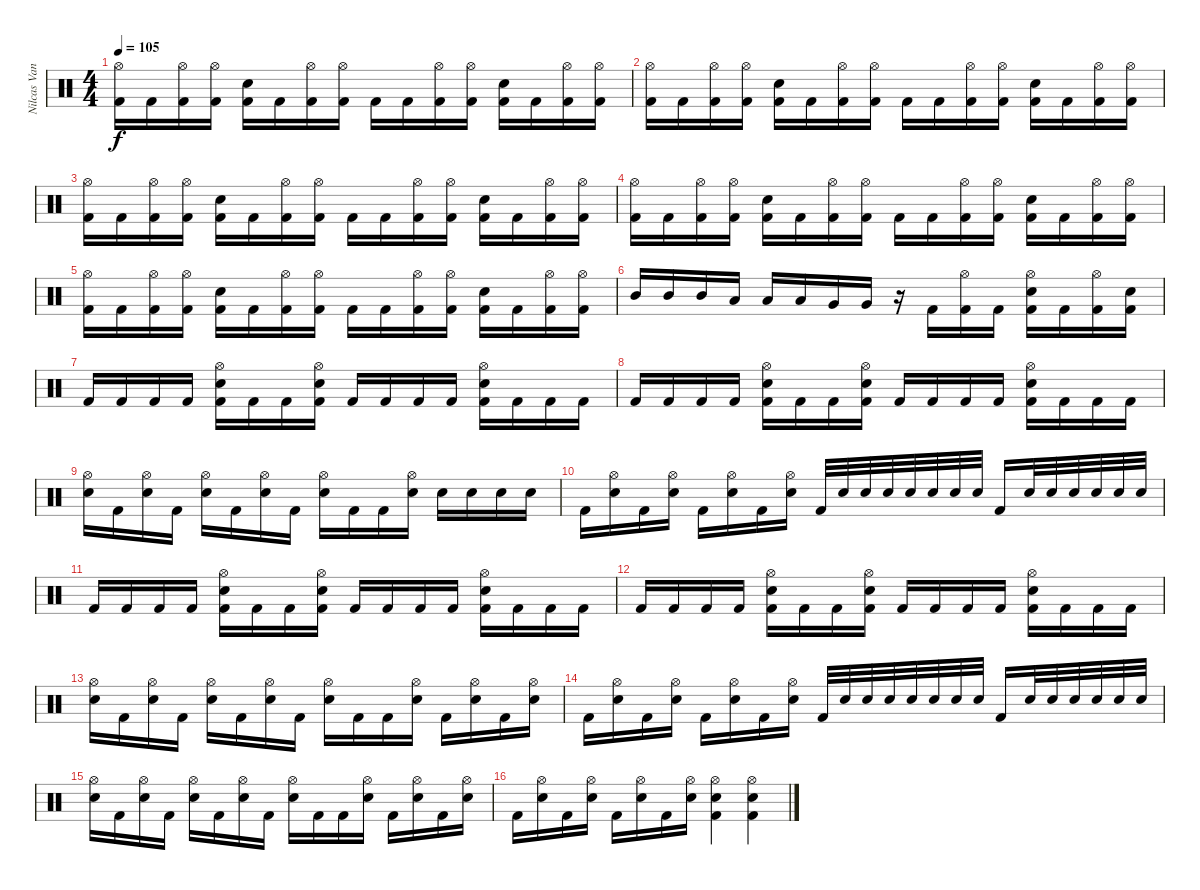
\track ("Nilcas Vant" "Nilcas Van") {instrument percussion}
\staff {score}
\articulation defaults
\ts (4 4)
\tempo 105
\clef neutral
\ks c
("Hi-Hat (open)" "Kick (hit) 2").16{dy f} "Kick (hit) 2".16 ("Hi-Hat (open)" "Kick (hit) 2").16 ("Hi-Hat (open)" "Kick (hit) 2").16 ("Electric Snare (hit)" "Kick (hit) 2").16 "Kick (hit) 2".16 ("Hi-Hat (open)" "Kick (hit) 2").16 ("Hi-Hat (open)" "Kick (hit) 2").16 "Kick (hit) 2".16 "Kick (hit) 2".16 ("Hi-Hat (open)" "Kick (hit) 2").16 ("Hi-Hat (open)" "Kick (hit) 2").16 ("Electric Snare (hit)" "Kick (hit) 2").16 "Kick (hit) 2".16 ("Hi-Hat (open)" "Kick (hit) 2").16 ("Hi-Hat (open)" "Kick (hit) 2").16 |
("Hi-Hat (open)" "Kick (hit) 2").16 "Kick (hit) 2".16 ("Hi-Hat (open)" "Kick (hit) 2").16 ("Hi-Hat (open)" "Kick (hit) 2").16 ("Electric Snare (hit)" "Kick (hit) 2").16 "Kick (hit) 2".16 ("Hi-Hat (open)" "Kick (hit) 2").16 ("Hi-Hat (open)" "Kick (hit) 2").16 "Kick (hit) 2".16 "Kick (hit) 2".16 ("Hi-Hat (open)" "Kick (hit) 2").16 ("Hi-Hat (open)" "Kick (hit) 2").16 ("Electric Snare (hit)" "Kick (hit) 2").16 "Kick (hit) 2".16 ("Hi-Hat (open)" "Kick (hit) 2").16 ("Hi-Hat (open)" "Kick (hit) 2").16 |
("Hi-Hat (open)" "Kick (hit) 2").16 "Kick (hit) 2".16 ("Hi-Hat (open)" "Kick (hit) 2").16 ("Hi-Hat (open)" "Kick (hit) 2").16 ("Electric Snare (hit)" "Kick (hit) 2").16 "Kick (hit) 2".16 ("Hi-Hat (open)" "Kick (hit) 2").16 ("Hi-Hat (open)" "Kick (hit) 2").16 "Kick (hit) 2".16 "Kick (hit) 2".16 ("Hi-Hat (open)" "Kick (hit) 2").16 ("Hi-Hat (open)" "Kick (hit) 2").16 ("Electric Snare (hit)" "Kick (hit) 2").16 "Kick (hit) 2".16 ("Hi-Hat (open)" "Kick (hit) 2").16 ("Hi-Hat (open)" "Kick (hit) 2").16 |
("Hi-Hat (open)" "Kick (hit) 2").16 "Kick (hit) 2".16 ("Hi-Hat (open)" "Kick (hit) 2").16 ("Hi-Hat (open)" "Kick (hit) 2").16 ("Electric Snare (hit)" "Kick (hit) 2").16 "Kick (hit) 2".16 ("Hi-Hat (open)" "Kick (hit) 2").16 ("Hi-Hat (open)" "Kick (hit) 2").16 "Kick (hit) 2".16 "Kick (hit) 2".16 ("Hi-Hat (open)" "Kick (hit) 2").16 ("Hi-Hat (open)" "Kick (hit) 2").16 ("Electric Snare (hit)" "Kick (hit) 2").16 "Kick (hit) 2".16 ("Hi-Hat (open)" "Kick (hit) 2").16 ("Hi-Hat (open)" "Kick (hit) 2").16 |
("Hi-Hat (open)" "Kick (hit) 2").16 "Kick (hit) 2".16 ("Hi-Hat (open)" "Kick (hit) 2").16 ("Hi-Hat (open)" "Kick (hit) 2").16 ("Electric Snare (hit)" "Kick (hit) 2").16 "Kick (hit) 2".16 ("Hi-Hat (open)" "Kick (hit) 2").16 ("Hi-Hat (open)" "Kick (hit) 2").16 "Kick (hit) 2".16 "Kick (hit) 2".16 ("Hi-Hat (open)" "Kick (hit) 2").16 ("Hi-Hat (open)" "Kick (hit) 2").16 ("Electric Snare (hit)" "Kick (hit) 2").16 "Kick (hit) 2".16 ("Hi-Hat (open)" "Kick (hit) 2").16 ("Hi-Hat (open)" "Kick (hit) 2").16 |
"Mid Tom (hit)".16 "Mid Tom (hit)".16 "Mid Tom (hit)".16 "Low Tom (hit)".16 "Low Tom (hit)".16 "Low Tom (hit)".16 "Very Low Tom (hit)".16 "Very Low Tom (hit)".16 r.16 "Kick (hit) 2".16 ("Hi-Hat (open)" "Kick (hit) 2").16 "Kick (hit) 2".16 ("Hi-Hat (open)" "Electric Snare (hit)" "Kick (hit) 2").16 "Kick (hit) 2".16 ("Hi-Hat (open)" "Kick (hit) 2").16 ("Electric Snare (hit)" "Kick (hit) 2").16 |
"Kick (hit) 2".16 "Kick (hit) 2".16 "Kick (hit) 2".16 "Kick (hit) 2".16 ("Hi-Hat (open)" "Electric Snare (hit)" "Kick (hit) 2").16 "Kick (hit) 2".16 "Kick (hit) 2".16 ("Hi-Hat (open)" "Electric Snare (hit)" "Kick (hit) 2").16 "Kick (hit) 2".16 "Kick (hit) 2".16 "Kick (hit) 2".16 "Kick (hit) 2".16 ("Hi-Hat (open)" "Electric Snare (hit)" "Kick (hit) 2").16 "Kick (hit) 2".16 "Kick (hit) 2".16 "Kick (hit) 2".16 |
"Kick (hit) 2".16 "Kick (hit) 2".16 "Kick (hit) 2".16 "Kick (hit) 2".16 ("Hi-Hat (open)" "Electric Snare (hit)" "Kick (hit) 2").16 "Kick (hit) 2".16 "Kick (hit) 2".16 ("Hi-Hat (open)" "Electric Snare (hit)" "Kick (hit) 2").16 "Kick (hit) 2".16 "Kick (hit) 2".16 "Kick (hit) 2".16 "Kick (hit) 2".16 ("Hi-Hat (open)" "Electric Snare (hit)" "Kick (hit) 2").16 "Kick (hit) 2".16 "Kick (hit) 2".16 "Kick (hit) 2".16 |
("Hi-Hat (open)" "Electric Snare (hit)").16 "Kick (hit) 2".16 ("Hi-Hat (open)" "Electric Snare (hit)").16 "Kick (hit) 2".16 ("Hi-Hat (open)" "Electric Snare (hit)").16 "Kick (hit) 2".16 ("Hi-Hat (open)" "Electric Snare (hit)").16 "Kick (hit) 2".16 ("Hi-Hat (open)" "Electric Snare (hit)").16 "Kick (hit) 2".16 "Kick (hit) 2".16 ("Hi-Hat (open)" "Electric Snare (hit)").16 "Electric Snare (hit)".16 "Electric Snare (hit)".16 "Electric Snare (hit)".16 "Electric Snare (hit)".16 |
"Kick (hit) 2".16 ("Hi-Hat (open)" "Electric Snare (hit)").16 "Kick (hit) 2".16 ("Hi-Hat (open)" "Electric Snare (hit)").16 "Kick (hit) 2".16 ("Hi-Hat (open)" "Electric Snare (hit)").16 "Kick (hit) 2".16 ("Hi-Hat (open)" "Electric Snare (hit)").16 "Kick (hit) 2".32 "Electric Snare (hit)".32 "Electric Snare (hit)".32 "Electric Snare (hit)".32 "Electric Snare (hit)".32 "Electric Snare (hit)".32 "Electric Snare (hit)".32 "Electric Snare (hit)".32 "Kick (hit) 2".16 "Electric Snare (hit)".32 "Electric Snare (hit)".32 "Electric Snare (hit)".32 "Electric Snare (hit)".32 "Electric Snare (hit)".32 "Electric Snare (hit)".32 |
"Kick (hit) 2".16 "Kick (hit) 2".16 "Kick (hit) 2".16 "Kick (hit) 2".16 ("Hi-Hat (open)" "Electric Snare (hit)" "Kick (hit) 2").16 "Kick (hit) 2".16 "Kick (hit) 2".16 ("Hi-Hat (open)" "Electric Snare (hit)" "Kick (hit) 2").16 "Kick (hit) 2".16 "Kick (hit) 2".16 "Kick (hit) 2".16 "Kick (hit) 2".16 ("Hi-Hat (open)" "Electric Snare (hit)" "Kick (hit) 2").16 "Kick (hit) 2".16 "Kick (hit) 2".16 "Kick (hit) 2".16 |
"Kick (hit) 2".16 "Kick (hit) 2".16 "Kick (hit) 2".16 "Kick (hit) 2".16 ("Hi-Hat (open)" "Electric Snare (hit)" "Kick (hit) 2").16 "Kick (hit) 2".16 "Kick (hit) 2".16 ("Hi-Hat (open)" "Electric Snare (hit)" "Kick (hit) 2").16 "Kick (hit) 2".16 "Kick (hit) 2".16 "Kick (hit) 2".16 "Kick (hit) 2".16 ("Hi-Hat (open)" "Electric Snare (hit)" "Kick (hit) 2").16 "Kick (hit) 2".16 "Kick (hit) 2".16 "Kick (hit) 2".16 |
("Hi-Hat (open)" "Electric Snare (hit)").16 "Kick (hit) 2".16 ("Hi-Hat (open)" "Electric Snare (hit)").16 "Kick (hit) 2".16 ("Hi-Hat (open)" "Electric Snare (hit)").16 "Kick (hit) 2".16 ("Hi-Hat (open)" "Electric Snare (hit)").16 "Kick (hit) 2".16 ("Hi-Hat (open)" "Electric Snare (hit)").16 "Kick (hit) 2".16 "Kick (hit) 2".16 ("Hi-Hat (open)" "Electric Snare (hit)").16 "Kick (hit) 2".16 ("Hi-Hat (open)" "Electric Snare (hit)").16 "Kick (hit) 2".16 ("Hi-Hat (open)" "Electric Snare (hit)").16 |
"Kick (hit) 2".16 ("Hi-Hat (open)" "Electric Snare (hit)").16 "Kick (hit) 2".16 ("Hi-Hat (open)" "Electric Snare (hit)").16 "Kick (hit) 2".16 ("Hi-Hat (open)" "Electric Snare (hit)").16 "Kick (hit) 2".16 ("Hi-Hat (open)" "Electric Snare (hit)").16 "Kick (hit) 2".32 "Electric Snare (hit)".32 "Electric Snare (hit)".32 "Electric Snare (hit)".32 "Electric Snare (hit)".32 "Electric Snare (hit)".32 "Electric Snare (hit)".32 "Electric Snare (hit)".32 "Kick (hit) 2".16 "Electric Snare (hit)".32 "Electric Snare (hit)".32 "Electric Snare (hit)".32 "Electric Snare (hit)".32 "Electric Snare (hit)".32 "Electric Snare (hit)".32 |
("Hi-Hat (open)" "Electric Snare (hit)").16 "Kick (hit) 2".16 ("Hi-Hat (open)" "Electric Snare (hit)").16 "Kick (hit) 2".16 ("Hi-Hat (open)" "Electric Snare (hit)").16 "Kick (hit) 2".16 ("Hi-Hat (open)" "Electric Snare (hit)").16 "Kick (hit) 2".16 ("Hi-Hat (open)" "Electric Snare (hit)").16 "Kick (hit) 2".16 "Kick (hit) 2".16 ("Hi-Hat (open)" "Electric Snare (hit)").16 "Kick (hit) 2".16 ("Hi-Hat (open)" "Electric Snare (hit)").16 "Kick (hit) 2".16 ("Hi-Hat (open)" "Electric Snare (hit)").16 |
"Kick (hit) 2".16 ("Hi-Hat (open)" "Electric Snare (hit)").16 "Kick (hit) 2".16 ("Hi-Hat (open)" "Electric Snare (hit)").16 "Kick (hit) 2".16 ("Hi-Hat (open)" "Electric Snare (hit)").16 "Kick (hit) 2".16 ("Hi-Hat (open)" "Electric Snare (hit)").16 ("Hi-Hat (open)" "Electric Snare (hit)" "Kick (hit) 2").4 ("Hi-Hat (open)" "Electric Snare (hit)" "Kick (hit) 2").4
